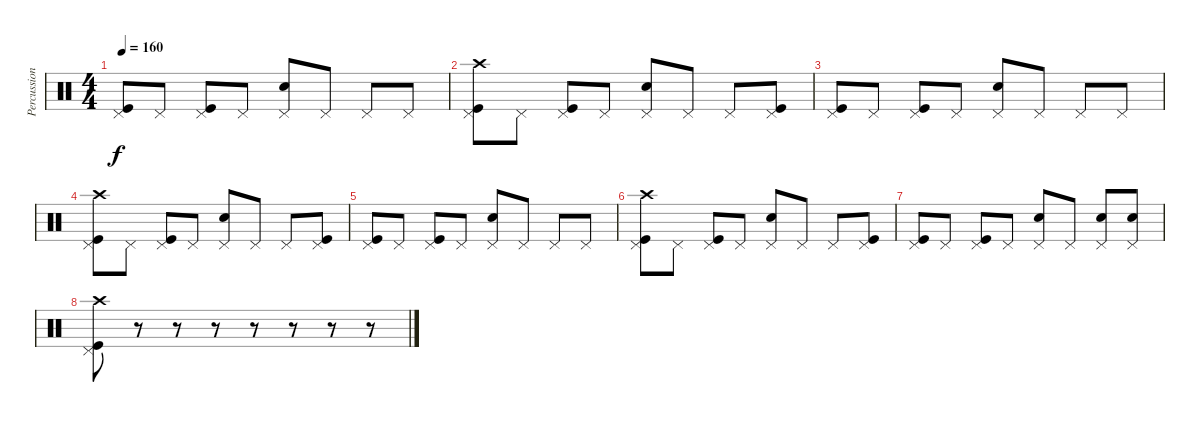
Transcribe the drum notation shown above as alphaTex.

\track ("Percussion" "Percussion") {instrument percussion}
\staff {score}
\articulation defaults
\ts (4 4)
\tempo 160
\clef neutral
\ks c
("Pedal Hi-Hat (hit)" "Kick (hit)").8{dy f} "Pedal Hi-Hat (hit)".8 ("Pedal Hi-Hat (hit)" "Kick (hit)").8 "Pedal Hi-Hat (hit)".8 ("Pedal Hi-Hat (hit)" "Snare (hit) 2").8 "Pedal Hi-Hat (hit)".8 "Pedal Hi-Hat (hit)".8 "Pedal Hi-Hat (hit)".8 |
("Crash high (hit)" "Pedal Hi-Hat (hit)" "Kick (hit)").8 "Pedal Hi-Hat (hit)".8 ("Pedal Hi-Hat (hit)" "Kick (hit)").8 "Pedal Hi-Hat (hit)".8 ("Pedal Hi-Hat (hit)" "Snare (hit) 2").8 "Pedal Hi-Hat (hit)".8 "Pedal Hi-Hat (hit)".8 ("Pedal Hi-Hat (hit)" "Kick (hit)").8 |
("Pedal Hi-Hat (hit)" "Kick (hit)").8 "Pedal Hi-Hat (hit)".8 ("Pedal Hi-Hat (hit)" "Kick (hit)").8 "Pedal Hi-Hat (hit)".8 ("Pedal Hi-Hat (hit)" "Snare (hit) 2").8 "Pedal Hi-Hat (hit)".8 "Pedal Hi-Hat (hit)".8 "Pedal Hi-Hat (hit)".8 |
("Crash high (hit)" "Pedal Hi-Hat (hit)" "Kick (hit)").8 "Pedal Hi-Hat (hit)".8 ("Pedal Hi-Hat (hit)" "Kick (hit)").8 "Pedal Hi-Hat (hit)".8 ("Pedal Hi-Hat (hit)" "Snare (hit) 2").8 "Pedal Hi-Hat (hit)".8 "Pedal Hi-Hat (hit)".8 ("Pedal Hi-Hat (hit)" "Kick (hit)").8 |
("Pedal Hi-Hat (hit)" "Kick (hit)").8 "Pedal Hi-Hat (hit)".8 ("Pedal Hi-Hat (hit)" "Kick (hit)").8 "Pedal Hi-Hat (hit)".8 ("Pedal Hi-Hat (hit)" "Snare (hit) 2").8 "Pedal Hi-Hat (hit)".8 "Pedal Hi-Hat (hit)".8 "Pedal Hi-Hat (hit)".8 |
("Crash high (hit)" "Pedal Hi-Hat (hit)" "Kick (hit)").8 "Pedal Hi-Hat (hit)".8 ("Pedal Hi-Hat (hit)" "Kick (hit)").8 "Pedal Hi-Hat (hit)".8 ("Pedal Hi-Hat (hit)" "Snare (hit) 2").8 "Pedal Hi-Hat (hit)".8 "Pedal Hi-Hat (hit)".8 ("Pedal Hi-Hat (hit)" "Kick (hit)").8 |
("Pedal Hi-Hat (hit)" "Kick (hit)").8 "Pedal Hi-Hat (hit)".8 ("Pedal Hi-Hat (hit)" "Kick (hit)").8 "Pedal Hi-Hat (hit)".8 ("Pedal Hi-Hat (hit)" "Snare (hit) 2").8 "Pedal Hi-Hat (hit)".8 ("Pedal Hi-Hat (hit)" "Snare (hit) 2").8 ("Pedal Hi-Hat (hit)" "Snare (hit) 2").8 |
("Crash high (hit)" "Pedal Hi-Hat (hit)" "Kick (hit)").8 r.8 r.8 r.8 r.8 r.8 r.8 r.8
